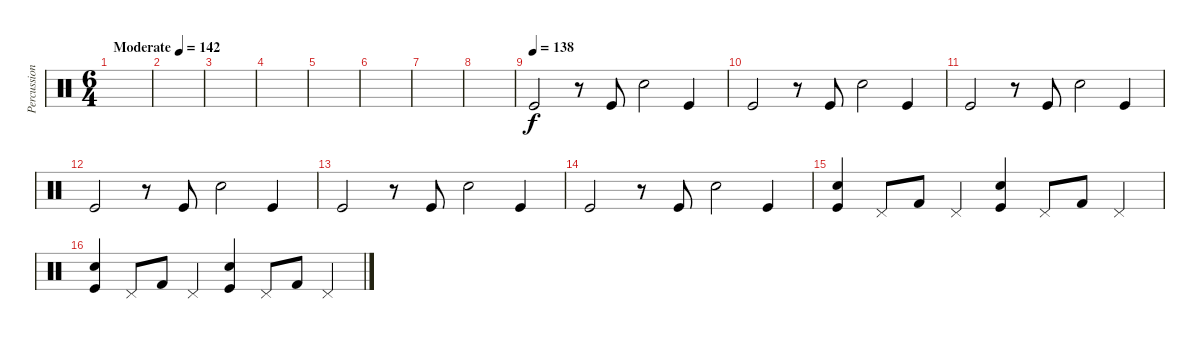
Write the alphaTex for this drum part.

\track ("Percussion" "Percussion") {instrument percussion}
\staff {score}
\articulation defaults
\ts (6 4)
\tempo (142 "Moderate")
\clef neutral
\ks c
|
|
|
|
|
|
|
|
\tempo (138)
"Kick (hit)".2 r.8 "Kick (hit)".8 "Snare (hit) 2".2 "Kick (hit)".4 |
"Kick (hit)".2 r.8 "Kick (hit)".8 "Snare (hit) 2".2 "Kick (hit)".4 |
"Kick (hit)".2 r.8 "Kick (hit)".8 "Snare (hit) 2".2 "Kick (hit)".4 |
"Kick (hit)".2 r.8 "Kick (hit)".8 "Snare (hit) 2".2 "Kick (hit)".4 |
"Kick (hit)".2 r.8 "Kick (hit)".8 "Snare (hit) 2".2 "Kick (hit)".4 |
"Kick (hit)".2 r.8 "Kick (hit)".8 "Snare (hit) 2".2 "Kick (hit)".4 |
("Kick (hit)" "Snare (hit) 2").4 "Pedal Hi-Hat (hit)".8 "Kick (hit) 2".8 "Pedal Hi-Hat (hit)".4 ("Kick (hit)" "Snare (hit) 2").4 "Pedal Hi-Hat (hit)".8 "Kick (hit) 2".8 "Pedal Hi-Hat (hit)".4 |
("Kick (hit)" "Snare (hit) 2").4 "Pedal Hi-Hat (hit)".8 "Kick (hit) 2".8 "Pedal Hi-Hat (hit)".4 ("Kick (hit)" "Snare (hit) 2").4 "Pedal Hi-Hat (hit)".8 "Kick (hit) 2".8 "Pedal Hi-Hat (hit)".4
